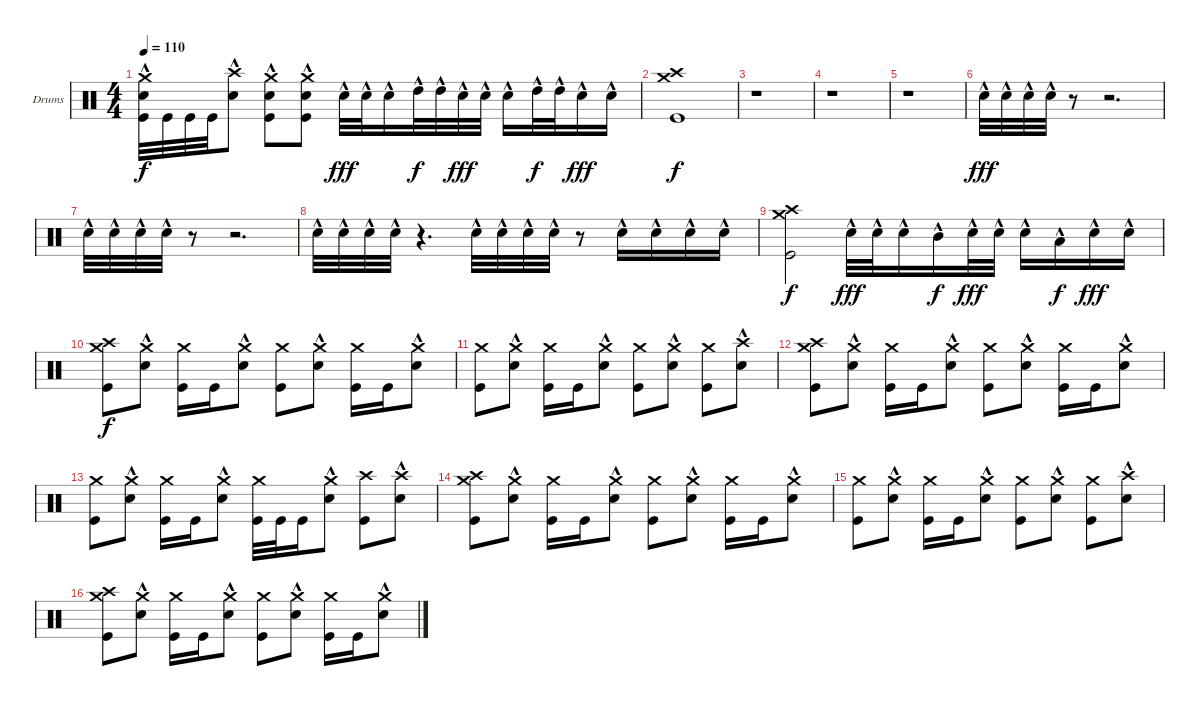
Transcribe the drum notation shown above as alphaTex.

\bracketExtendMode groupsimilarinstruments
\firstSystemTrackNameOrientation horizontal
\otherSystemsTrackNameOrientation horizontal
\track ("Drumkit (Christoph)" "Drums") {instrument percussion}
\staff {score}
\articulation defaults
\ts (4 4)
\tempo 110
\clef neutral
\ks c
("Crash medium (hit)" "Kick (hit)" "Snare (hit) 2"{hac}).32{dy f} "Kick (hit)".32 "Kick (hit)".32 "Kick (hit)".32 ("Crash high (hit)" "Snare (hit) 2"{hac}).8 ("Crash medium (hit)" "Kick (hit)" "Snare (hit) 2"{hac}).8 ("Crash medium (hit)" "Kick (hit)" "Snare (hit) 2"{hac}).8 "Snare (hit) 2"{hac}.32{dy fff} "Snare (hit) 2"{hac}.32 "Snare (hit) 2"{hac}.16 "High Tom (hit)"{hac}.32{dy f} "High Tom (hit)"{hac}.32 "Snare (hit) 2"{hac}.32{dy fff} "Snare (hit) 2"{hac}.32 "Snare (hit) 2"{hac}.16 "High Tom (hit)"{hac}.32{dy f} "High Tom (hit)"{hac}.32 "Snare (hit) 2"{hac}.16{dy fff} "Snare (hit) 2"{hac}.16 |
("Crash medium (hit)" "Kick (hit)" "Crash high (hit)").1{dy f} |
r.1 |
r.1 |
r.1 |
"Snare (hit) 2"{hac}.32{dy fff} "Snare (hit) 2"{hac}.32 "Snare (hit) 2"{hac}.32 "Snare (hit) 2"{hac}.32 r.8 r.2{d} |
"Snare (hit) 2"{hac}.32 "Snare (hit) 2"{hac}.32 "Snare (hit) 2"{hac}.32 "Snare (hit) 2"{hac}.32 r.8 r.2{d} |
"Snare (hit) 2"{hac}.32 "Snare (hit) 2"{hac}.32 "Snare (hit) 2"{hac}.32 "Snare (hit) 2"{hac}.32 r.4{d} "Snare (hit) 2"{hac}.32 "Snare (hit) 2"{hac}.32 "Snare (hit) 2"{hac}.32 "Snare (hit) 2"{hac}.32 r.8 "Snare (hit) 2"{hac}.16 "Snare (hit) 2"{hac}.16 "Snare (hit) 2"{hac}.16 "Snare (hit) 2"{hac}.16 |
("Crash medium (hit)" "Kick (hit)" "Crash high (hit)").2{dy f} "Snare (hit) 2"{hac}.32{dy fff} "Snare (hit) 2"{hac}.32 "Snare (hit) 2"{hac}.16 "Mid Tom (hit)"{hac}.16{dy f} "Snare (hit) 2"{hac}.32{dy fff} "Snare (hit) 2"{hac}.32 "Snare (hit) 2"{hac}.16 "Low Tom (hit)"{hac}.16{dy f} "Snare (hit) 2"{hac}.16{dy fff} "Snare (hit) 2"{hac}.16 |
("Crash medium (hit)" "Kick (hit)" "Crash high (hit)").8{dy f} ("Crash medium (hit)" "Snare (hit) 2"{hac}).8 ("Crash medium (hit)" "Kick (hit)").16 "Kick (hit)".16 ("Crash medium (hit)" "Snare (hit) 2"{hac}).8 ("Crash medium (hit)" "Kick (hit)").8 ("Crash medium (hit)" "Snare (hit) 2"{hac}).8 ("Crash medium (hit)" "Kick (hit)").16 "Kick (hit)".16 ("Crash medium (hit)" "Snare (hit) 2"{hac}).8 |
("Crash medium (hit)" "Kick (hit)").8 ("Crash medium (hit)" "Snare (hit) 2"{hac}).8 ("Crash medium (hit)" "Kick (hit)").16 "Kick (hit)".16 ("Crash medium (hit)" "Snare (hit) 2"{hac}).8 ("Crash medium (hit)" "Kick (hit)").8 ("Crash medium (hit)" "Snare (hit) 2"{hac}).8 ("Crash medium (hit)" "Kick (hit)").8 ("Crash high (hit)" "Snare (hit) 2"{hac}).8 |
("Crash medium (hit)" "Kick (hit)" "Crash high (hit)").8 ("Crash medium (hit)" "Snare (hit) 2"{hac}).8 ("Crash medium (hit)" "Kick (hit)").16 "Kick (hit)".16 ("Crash medium (hit)" "Snare (hit) 2"{hac}).8 ("Crash medium (hit)" "Kick (hit)").8 ("Crash medium (hit)" "Snare (hit) 2"{hac}).8 ("Crash medium (hit)" "Kick (hit)").16 "Kick (hit)".16 ("Crash medium (hit)" "Snare (hit) 2"{hac}).8 |
("Crash medium (hit)" "Kick (hit)").8 ("Crash medium (hit)" "Snare (hit) 2"{hac}).8 ("Crash medium (hit)" "Kick (hit)").16 "Kick (hit)".16 ("Crash medium (hit)" "Snare (hit) 2"{hac}).8 ("Crash medium (hit)" "Kick (hit)").32 "Kick (hit)".32 "Kick (hit)".16 ("Crash medium (hit)" "Snare (hit) 2"{hac}).8 ("Crash high (hit)" "Kick (hit)").8 ("Crash high (hit)" "Snare (hit) 2"{hac}).8 |
("Crash medium (hit)" "Kick (hit)" "Crash high (hit)").8 ("Crash medium (hit)" "Snare (hit) 2"{hac}).8 ("Crash medium (hit)" "Kick (hit)").16 "Kick (hit)".16 ("Crash medium (hit)" "Snare (hit) 2"{hac}).8 ("Crash medium (hit)" "Kick (hit)").8 ("Crash medium (hit)" "Snare (hit) 2"{hac}).8 ("Crash medium (hit)" "Kick (hit)").16 "Kick (hit)".16 ("Crash medium (hit)" "Snare (hit) 2"{hac}).8 |
("Crash medium (hit)" "Kick (hit)").8 ("Crash medium (hit)" "Snare (hit) 2"{hac}).8 ("Crash medium (hit)" "Kick (hit)").16 "Kick (hit)".16 ("Crash medium (hit)" "Snare (hit) 2"{hac}).8 ("Crash medium (hit)" "Kick (hit)").8 ("Crash medium (hit)" "Snare (hit) 2"{hac}).8 ("Crash medium (hit)" "Kick (hit)").8 ("Crash high (hit)" "Snare (hit) 2"{hac}).8 |
("Crash medium (hit)" "Kick (hit)" "Crash high (hit)").8 ("Crash medium (hit)" "Snare (hit) 2"{hac}).8 ("Crash medium (hit)" "Kick (hit)").16 "Kick (hit)".16 ("Crash medium (hit)" "Snare (hit) 2"{hac}).8 ("Crash medium (hit)" "Kick (hit)").8 ("Crash medium (hit)" "Snare (hit) 2"{hac}).8 ("Crash medium (hit)" "Kick (hit)").16 "Kick (hit)".16 ("Crash medium (hit)" "Snare (hit) 2"{hac}).8
